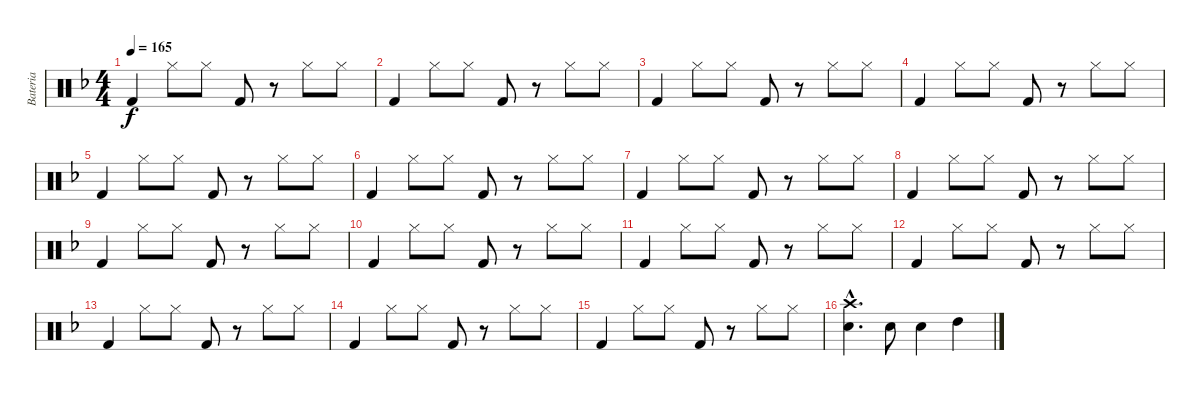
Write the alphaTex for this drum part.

\track ("Bateria" "Bateria") {instrument percussion}
\staff {score}
\articulation defaults
\ts (4 4)
\tempo 165
\clef neutral
\ks dminor "Kick (hit) 2".4{dy f} "Hi-Hat (closed)".8 "Hi-Hat (closed)".8 "Kick (hit) 2".8
r.8 "Hi-Hat (closed)".8 "Hi-Hat (closed)".8 |
"Kick (hit) 2".4 "Hi-Hat (closed)".8 "Hi-Hat (closed)".8 "Kick (hit) 2".8 r.8 "Hi-Hat (closed)".8 "Hi-Hat (closed)".8 |
"Kick (hit) 2".4 "Hi-Hat (closed)".8 "Hi-Hat (closed)".8 "Kick (hit) 2".8 r.8 "Hi-Hat (closed)".8 "Hi-Hat (closed)".8 |
"Kick (hit) 2".4 "Hi-Hat (closed)".8 "Hi-Hat (closed)".8 "Kick (hit) 2".8 r.8 "Hi-Hat (closed)".8 "Hi-Hat (closed)".8 |
"Kick (hit) 2".4 "Hi-Hat (closed)".8 "Hi-Hat (closed)".8 "Kick (hit) 2".8 r.8 "Hi-Hat (closed)".8 "Hi-Hat (closed)".8 |
"Kick (hit) 2".4 "Hi-Hat (closed)".8 "Hi-Hat (closed)".8 "Kick (hit) 2".8 r.8 "Hi-Hat (closed)".8 "Hi-Hat (closed)".8 |
"Kick (hit) 2".4 "Hi-Hat (closed)".8 "Hi-Hat (closed)".8 "Kick (hit) 2".8 r.8 "Hi-Hat (closed)".8 "Hi-Hat (closed)".8 |
"Kick (hit) 2".4 "Hi-Hat (closed)".8 "Hi-Hat (closed)".8 "Kick (hit) 2".8 r.8 "Hi-Hat (closed)".8 "Hi-Hat (closed)".8 |
"Kick (hit) 2".4 "Hi-Hat (closed)".8 "Hi-Hat (closed)".8 "Kick (hit) 2".8 r.8 "Hi-Hat (closed)".8 "Hi-Hat (closed)".8 |
"Kick (hit) 2".4 "Hi-Hat (closed)".8 "Hi-Hat (closed)".8 "Kick (hit) 2".8 r.8 "Hi-Hat (closed)".8 "Hi-Hat (closed)".8 |
"Kick (hit) 2".4 "Hi-Hat (closed)".8 "Hi-Hat (closed)".8 "Kick (hit) 2".8 r.8 "Hi-Hat (closed)".8 "Hi-Hat (closed)".8 |
"Kick (hit) 2".4 "Hi-Hat (closed)".8 "Hi-Hat (closed)".8 "Kick (hit) 2".8 r.8 "Hi-Hat (closed)".8 "Hi-Hat (closed)".8 |
"Kick (hit) 2".4 "Hi-Hat (closed)".8 "Hi-Hat (closed)".8 "Kick (hit) 2".8 r.8 "Hi-Hat (closed)".8 "Hi-Hat (closed)".8 |
"Kick (hit) 2".4 "Hi-Hat (closed)".8 "Hi-Hat (closed)".8 "Kick (hit) 2".8 r.8 "Hi-Hat (closed)".8 "Hi-Hat (closed)".8 |
"Kick (hit) 2".4 "Hi-Hat (closed)".8 "Hi-Hat (closed)".8 "Kick (hit) 2".8 r.8 "Hi-Hat (closed)".8 "Hi-Hat (closed)".8 |
("Crash high (hit)"{hac} "Snare (hit) 2"{hac}).4{d} "Snare (hit) 2".8 "Snare (hit) 2".4 "High Tom (hit)".4
